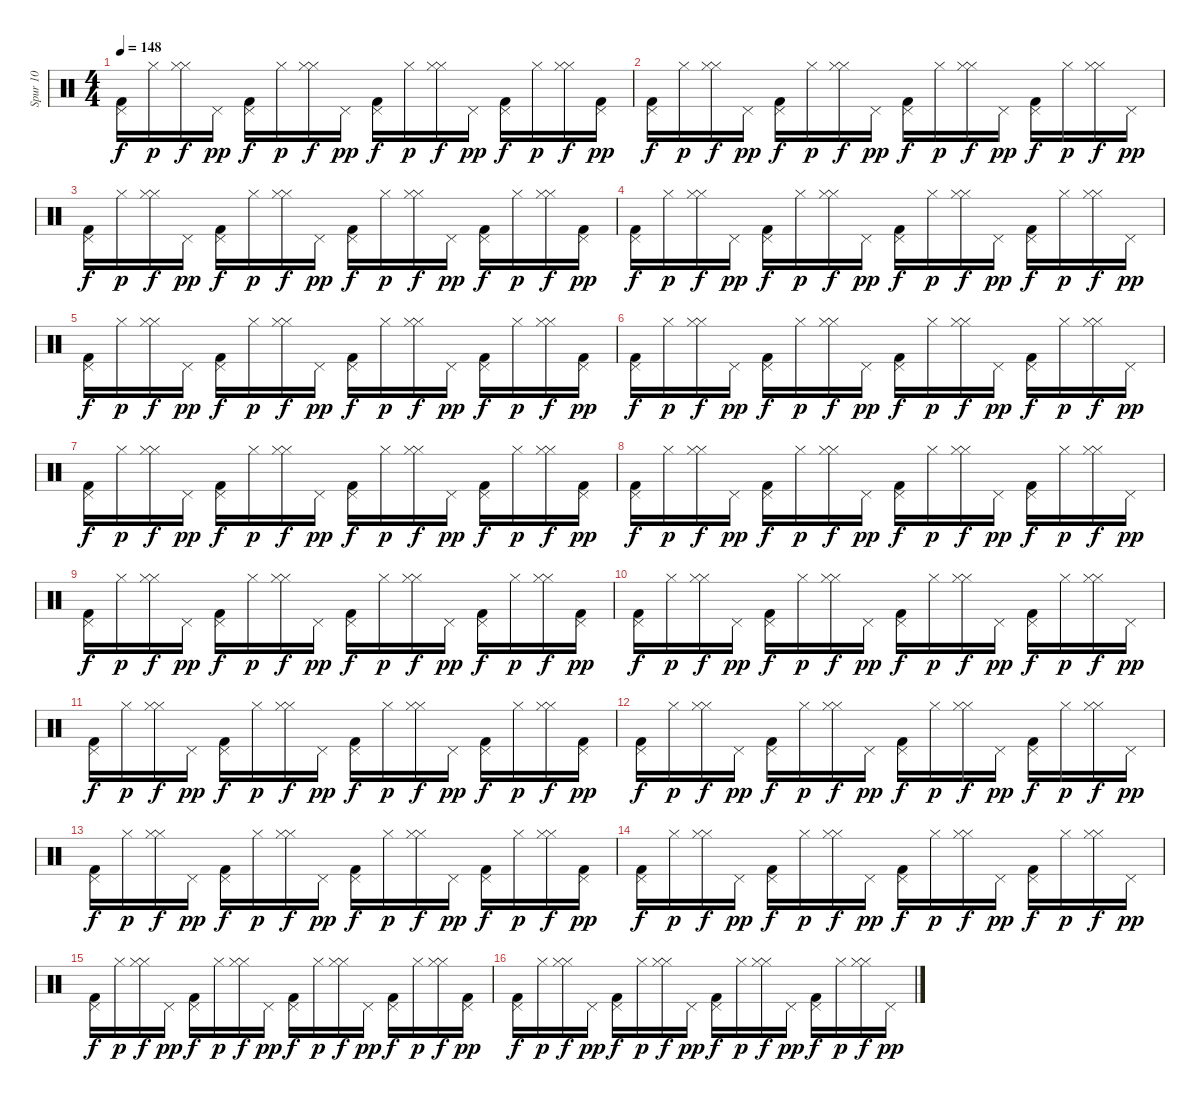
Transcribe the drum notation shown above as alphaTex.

\track ("Spur 10" "Spur 10") {instrument percussion}
\staff {score}
\articulation defaults
\ts (4 4)
\tempo 148
\clef neutral
\ks c
("Pedal Hi-Hat (hit)" "Kick (hit) 2").16{dy f} "Hi-Hat (closed)".16{dy p} ("Hi-Hat (closed)" "Hi-Hat (closed)").16{dy f} "Pedal Hi-Hat (hit)".16{dy pp} ("Pedal Hi-Hat (hit)" "Kick (hit) 2").16{dy f} "Hi-Hat (closed)".16{dy p} ("Hi-Hat (closed)" "Hi-Hat (closed)").16{dy f} "Pedal Hi-Hat (hit)".16{dy pp} ("Pedal Hi-Hat (hit)" "Kick (hit) 2").16{dy f} "Hi-Hat (closed)".16{dy p} ("Hi-Hat (closed)" "Hi-Hat (closed)").16{dy f} "Pedal Hi-Hat (hit)".16{dy pp} ("Pedal Hi-Hat (hit)" "Kick (hit) 2").16{dy f} "Hi-Hat (closed)".16{dy p} ("Hi-Hat (closed)" "Hi-Hat (closed)").16{dy f} ("Kick (hit) 2" "Pedal Hi-Hat (hit)").16{dy pp} |
("Pedal Hi-Hat (hit)" "Kick (hit) 2").16{dy f} "Hi-Hat (closed)".16{dy p} ("Hi-Hat (closed)" "Hi-Hat (closed)").16{dy f} "Pedal Hi-Hat (hit)".16{dy pp} ("Pedal Hi-Hat (hit)" "Kick (hit) 2").16{dy f} "Hi-Hat (closed)".16{dy p} ("Hi-Hat (closed)" "Hi-Hat (closed)").16{dy f} "Pedal Hi-Hat (hit)".16{dy pp} ("Pedal Hi-Hat (hit)" "Kick (hit) 2").16{dy f} "Hi-Hat (closed)".16{dy p} ("Hi-Hat (closed)" "Hi-Hat (closed)").16{dy f} "Pedal Hi-Hat (hit)".16{dy pp} ("Pedal Hi-Hat (hit)" "Kick (hit) 2").16{dy f} "Hi-Hat (closed)".16{dy p} ("Hi-Hat (closed)" "Hi-Hat (closed)").16{dy f} "Pedal Hi-Hat (hit)".16{dy pp} |
("Pedal Hi-Hat (hit)" "Kick (hit) 2").16{dy f} "Hi-Hat (closed)".16{dy p} ("Hi-Hat (closed)" "Hi-Hat (closed)").16{dy f} "Pedal Hi-Hat (hit)".16{dy pp} ("Pedal Hi-Hat (hit)" "Kick (hit) 2").16{dy f} "Hi-Hat (closed)".16{dy p} ("Hi-Hat (closed)" "Hi-Hat (closed)").16{dy f} "Pedal Hi-Hat (hit)".16{dy pp} ("Pedal Hi-Hat (hit)" "Kick (hit) 2").16{dy f} "Hi-Hat (closed)".16{dy p} ("Hi-Hat (closed)" "Hi-Hat (closed)").16{dy f} "Pedal Hi-Hat (hit)".16{dy pp} ("Pedal Hi-Hat (hit)" "Kick (hit) 2").16{dy f} "Hi-Hat (closed)".16{dy p} ("Hi-Hat (closed)" "Hi-Hat (closed)").16{dy f} ("Kick (hit) 2" "Pedal Hi-Hat (hit)").16{dy pp} |
("Pedal Hi-Hat (hit)" "Kick (hit) 2").16{dy f} "Hi-Hat (closed)".16{dy p} ("Hi-Hat (closed)" "Hi-Hat (closed)").16{dy f} "Pedal Hi-Hat (hit)".16{dy pp} ("Pedal Hi-Hat (hit)" "Kick (hit) 2").16{dy f} "Hi-Hat (closed)".16{dy p} ("Hi-Hat (closed)" "Hi-Hat (closed)").16{dy f} "Pedal Hi-Hat (hit)".16{dy pp} ("Pedal Hi-Hat (hit)" "Kick (hit) 2").16{dy f} "Hi-Hat (closed)".16{dy p} ("Hi-Hat (closed)" "Hi-Hat (closed)").16{dy f} "Pedal Hi-Hat (hit)".16{dy pp} ("Pedal Hi-Hat (hit)" "Kick (hit) 2").16{dy f} "Hi-Hat (closed)".16{dy p} ("Hi-Hat (closed)" "Hi-Hat (closed)").16{dy f} "Pedal Hi-Hat (hit)".16{dy pp} |
("Pedal Hi-Hat (hit)" "Kick (hit) 2").16{dy f} "Hi-Hat (closed)".16{dy p} ("Hi-Hat (closed)" "Hi-Hat (closed)").16{dy f} "Pedal Hi-Hat (hit)".16{dy pp} ("Pedal Hi-Hat (hit)" "Kick (hit) 2").16{dy f} "Hi-Hat (closed)".16{dy p} ("Hi-Hat (closed)" "Hi-Hat (closed)").16{dy f} "Pedal Hi-Hat (hit)".16{dy pp} ("Pedal Hi-Hat (hit)" "Kick (hit) 2").16{dy f} "Hi-Hat (closed)".16{dy p} ("Hi-Hat (closed)" "Hi-Hat (closed)").16{dy f} "Pedal Hi-Hat (hit)".16{dy pp} ("Pedal Hi-Hat (hit)" "Kick (hit) 2").16{dy f} "Hi-Hat (closed)".16{dy p} ("Hi-Hat (closed)" "Hi-Hat (closed)").16{dy f} ("Kick (hit) 2" "Pedal Hi-Hat (hit)").16{dy pp} |
("Pedal Hi-Hat (hit)" "Kick (hit) 2").16{dy f} "Hi-Hat (closed)".16{dy p} ("Hi-Hat (closed)" "Hi-Hat (closed)").16{dy f} "Pedal Hi-Hat (hit)".16{dy pp} ("Pedal Hi-Hat (hit)" "Kick (hit) 2").16{dy f} "Hi-Hat (closed)".16{dy p} ("Hi-Hat (closed)" "Hi-Hat (closed)").16{dy f} "Pedal Hi-Hat (hit)".16{dy pp} ("Pedal Hi-Hat (hit)" "Kick (hit) 2").16{dy f} "Hi-Hat (closed)".16{dy p} ("Hi-Hat (closed)" "Hi-Hat (closed)").16{dy f} "Pedal Hi-Hat (hit)".16{dy pp} ("Pedal Hi-Hat (hit)" "Kick (hit) 2").16{dy f} "Hi-Hat (closed)".16{dy p} ("Hi-Hat (closed)" "Hi-Hat (closed)").16{dy f} "Pedal Hi-Hat (hit)".16{dy pp} |
("Pedal Hi-Hat (hit)" "Kick (hit) 2").16{dy f} "Hi-Hat (closed)".16{dy p} ("Hi-Hat (closed)" "Hi-Hat (closed)").16{dy f} "Pedal Hi-Hat (hit)".16{dy pp} ("Pedal Hi-Hat (hit)" "Kick (hit) 2").16{dy f} "Hi-Hat (closed)".16{dy p} ("Hi-Hat (closed)" "Hi-Hat (closed)").16{dy f} "Pedal Hi-Hat (hit)".16{dy pp} ("Pedal Hi-Hat (hit)" "Kick (hit) 2").16{dy f} "Hi-Hat (closed)".16{dy p} ("Hi-Hat (closed)" "Hi-Hat (closed)").16{dy f} "Pedal Hi-Hat (hit)".16{dy pp} ("Pedal Hi-Hat (hit)" "Kick (hit) 2").16{dy f} "Hi-Hat (closed)".16{dy p} ("Hi-Hat (closed)" "Hi-Hat (closed)").16{dy f} ("Kick (hit) 2" "Pedal Hi-Hat (hit)").16{dy pp} |
("Pedal Hi-Hat (hit)" "Kick (hit) 2").16{dy f} "Hi-Hat (closed)".16{dy p} ("Hi-Hat (closed)" "Hi-Hat (closed)").16{dy f} "Pedal Hi-Hat (hit)".16{dy pp} ("Pedal Hi-Hat (hit)" "Kick (hit) 2").16{dy f} "Hi-Hat (closed)".16{dy p} ("Hi-Hat (closed)" "Hi-Hat (closed)").16{dy f} "Pedal Hi-Hat (hit)".16{dy pp} ("Pedal Hi-Hat (hit)" "Kick (hit) 2").16{dy f} "Hi-Hat (closed)".16{dy p} ("Hi-Hat (closed)" "Hi-Hat (closed)").16{dy f} "Pedal Hi-Hat (hit)".16{dy pp} ("Pedal Hi-Hat (hit)" "Kick (hit) 2").16{dy f} "Hi-Hat (closed)".16{dy p} ("Hi-Hat (closed)" "Hi-Hat (closed)").16{dy f} "Pedal Hi-Hat (hit)".16{dy pp} |
("Pedal Hi-Hat (hit)" "Kick (hit) 2").16{dy f} "Hi-Hat (closed)".16{dy p} ("Hi-Hat (closed)" "Hi-Hat (closed)").16{dy f} "Pedal Hi-Hat (hit)".16{dy pp} ("Pedal Hi-Hat (hit)" "Kick (hit) 2").16{dy f} "Hi-Hat (closed)".16{dy p} ("Hi-Hat (closed)" "Hi-Hat (closed)").16{dy f} "Pedal Hi-Hat (hit)".16{dy pp} ("Pedal Hi-Hat (hit)" "Kick (hit) 2").16{dy f} "Hi-Hat (closed)".16{dy p} ("Hi-Hat (closed)" "Hi-Hat (closed)").16{dy f} "Pedal Hi-Hat (hit)".16{dy pp} ("Pedal Hi-Hat (hit)" "Kick (hit) 2").16{dy f} "Hi-Hat (closed)".16{dy p} ("Hi-Hat (closed)" "Hi-Hat (closed)").16{dy f} ("Kick (hit) 2" "Pedal Hi-Hat (hit)").16{dy pp} |
("Pedal Hi-Hat (hit)" "Kick (hit) 2").16{dy f} "Hi-Hat (closed)".16{dy p} ("Hi-Hat (closed)" "Hi-Hat (closed)").16{dy f} "Pedal Hi-Hat (hit)".16{dy pp} ("Pedal Hi-Hat (hit)" "Kick (hit) 2").16{dy f} "Hi-Hat (closed)".16{dy p} ("Hi-Hat (closed)" "Hi-Hat (closed)").16{dy f} "Pedal Hi-Hat (hit)".16{dy pp} ("Pedal Hi-Hat (hit)" "Kick (hit) 2").16{dy f} "Hi-Hat (closed)".16{dy p} ("Hi-Hat (closed)" "Hi-Hat (closed)").16{dy f} "Pedal Hi-Hat (hit)".16{dy pp} ("Pedal Hi-Hat (hit)" "Kick (hit) 2").16{dy f} "Hi-Hat (closed)".16{dy p} ("Hi-Hat (closed)" "Hi-Hat (closed)").16{dy f} "Pedal Hi-Hat (hit)".16{dy pp} |
("Pedal Hi-Hat (hit)" "Kick (hit) 2").16{dy f} "Hi-Hat (closed)".16{dy p} ("Hi-Hat (closed)" "Hi-Hat (closed)").16{dy f} "Pedal Hi-Hat (hit)".16{dy pp} ("Pedal Hi-Hat (hit)" "Kick (hit) 2").16{dy f} "Hi-Hat (closed)".16{dy p} ("Hi-Hat (closed)" "Hi-Hat (closed)").16{dy f} "Pedal Hi-Hat (hit)".16{dy pp} ("Pedal Hi-Hat (hit)" "Kick (hit) 2").16{dy f} "Hi-Hat (closed)".16{dy p} ("Hi-Hat (closed)" "Hi-Hat (closed)").16{dy f} "Pedal Hi-Hat (hit)".16{dy pp} ("Pedal Hi-Hat (hit)" "Kick (hit) 2").16{dy f} "Hi-Hat (closed)".16{dy p} ("Hi-Hat (closed)" "Hi-Hat (closed)").16{dy f} ("Kick (hit) 2" "Pedal Hi-Hat (hit)").16{dy pp} |
("Pedal Hi-Hat (hit)" "Kick (hit) 2").16{dy f} "Hi-Hat (closed)".16{dy p} ("Hi-Hat (closed)" "Hi-Hat (closed)").16{dy f} "Pedal Hi-Hat (hit)".16{dy pp} ("Pedal Hi-Hat (hit)" "Kick (hit) 2").16{dy f} "Hi-Hat (closed)".16{dy p} ("Hi-Hat (closed)" "Hi-Hat (closed)").16{dy f} "Pedal Hi-Hat (hit)".16{dy pp} ("Pedal Hi-Hat (hit)" "Kick (hit) 2").16{dy f} "Hi-Hat (closed)".16{dy p} ("Hi-Hat (closed)" "Hi-Hat (closed)").16{dy f} "Pedal Hi-Hat (hit)".16{dy pp} ("Pedal Hi-Hat (hit)" "Kick (hit) 2").16{dy f} "Hi-Hat (closed)".16{dy p} ("Hi-Hat (closed)" "Hi-Hat (closed)").16{dy f} "Pedal Hi-Hat (hit)".16{dy pp} |
("Pedal Hi-Hat (hit)" "Kick (hit) 2").16{dy f} "Hi-Hat (closed)".16{dy p} ("Hi-Hat (closed)" "Hi-Hat (closed)").16{dy f} "Pedal Hi-Hat (hit)".16{dy pp} ("Pedal Hi-Hat (hit)" "Kick (hit) 2").16{dy f} "Hi-Hat (closed)".16{dy p} ("Hi-Hat (closed)" "Hi-Hat (closed)").16{dy f} "Pedal Hi-Hat (hit)".16{dy pp} ("Pedal Hi-Hat (hit)" "Kick (hit) 2").16{dy f} "Hi-Hat (closed)".16{dy p} ("Hi-Hat (closed)" "Hi-Hat (closed)").16{dy f} "Pedal Hi-Hat (hit)".16{dy pp} ("Pedal Hi-Hat (hit)" "Kick (hit) 2").16{dy f} "Hi-Hat (closed)".16{dy p} ("Hi-Hat (closed)" "Hi-Hat (closed)").16{dy f} ("Kick (hit) 2" "Pedal Hi-Hat (hit)").16{dy pp} |
("Pedal Hi-Hat (hit)" "Kick (hit) 2").16{dy f} "Hi-Hat (closed)".16{dy p} ("Hi-Hat (closed)" "Hi-Hat (closed)").16{dy f} "Pedal Hi-Hat (hit)".16{dy pp} ("Pedal Hi-Hat (hit)" "Kick (hit) 2").16{dy f} "Hi-Hat (closed)".16{dy p} ("Hi-Hat (closed)" "Hi-Hat (closed)").16{dy f} "Pedal Hi-Hat (hit)".16{dy pp} ("Pedal Hi-Hat (hit)" "Kick (hit) 2").16{dy f} "Hi-Hat (closed)".16{dy p} ("Hi-Hat (closed)" "Hi-Hat (closed)").16{dy f} "Pedal Hi-Hat (hit)".16{dy pp} ("Pedal Hi-Hat (hit)" "Kick (hit) 2").16{dy f} "Hi-Hat (closed)".16{dy p} ("Hi-Hat (closed)" "Hi-Hat (closed)").16{dy f} "Pedal Hi-Hat (hit)".16{dy pp} |
("Pedal Hi-Hat (hit)" "Kick (hit) 2").16{dy f} "Hi-Hat (closed)".16{dy p} ("Hi-Hat (closed)" "Hi-Hat (closed)").16{dy f} "Pedal Hi-Hat (hit)".16{dy pp} ("Pedal Hi-Hat (hit)" "Kick (hit) 2").16{dy f} "Hi-Hat (closed)".16{dy p} ("Hi-Hat (closed)" "Hi-Hat (closed)").16{dy f} "Pedal Hi-Hat (hit)".16{dy pp} ("Pedal Hi-Hat (hit)" "Kick (hit) 2").16{dy f} "Hi-Hat (closed)".16{dy p} ("Hi-Hat (closed)" "Hi-Hat (closed)").16{dy f} "Pedal Hi-Hat (hit)".16{dy pp} ("Pedal Hi-Hat (hit)" "Kick (hit) 2").16{dy f} "Hi-Hat (closed)".16{dy p} ("Hi-Hat (closed)" "Hi-Hat (closed)").16{dy f} ("Kick (hit) 2" "Pedal Hi-Hat (hit)").16{dy pp} |
("Pedal Hi-Hat (hit)" "Kick (hit) 2").16{dy f} "Hi-Hat (closed)".16{dy p} ("Hi-Hat (closed)" "Hi-Hat (closed)").16{dy f} "Pedal Hi-Hat (hit)".16{dy pp} ("Pedal Hi-Hat (hit)" "Kick (hit) 2").16{dy f} "Hi-Hat (closed)".16{dy p} ("Hi-Hat (closed)" "Hi-Hat (closed)").16{dy f} "Pedal Hi-Hat (hit)".16{dy pp} ("Pedal Hi-Hat (hit)" "Kick (hit) 2").16{dy f} "Hi-Hat (closed)".16{dy p} ("Hi-Hat (closed)" "Hi-Hat (closed)").16{dy f} "Pedal Hi-Hat (hit)".16{dy pp} ("Pedal Hi-Hat (hit)" "Kick (hit) 2").16{dy f} "Hi-Hat (closed)".16{dy p} ("Hi-Hat (closed)" "Hi-Hat (closed)").16{dy f} "Pedal Hi-Hat (hit)".16{dy pp}
